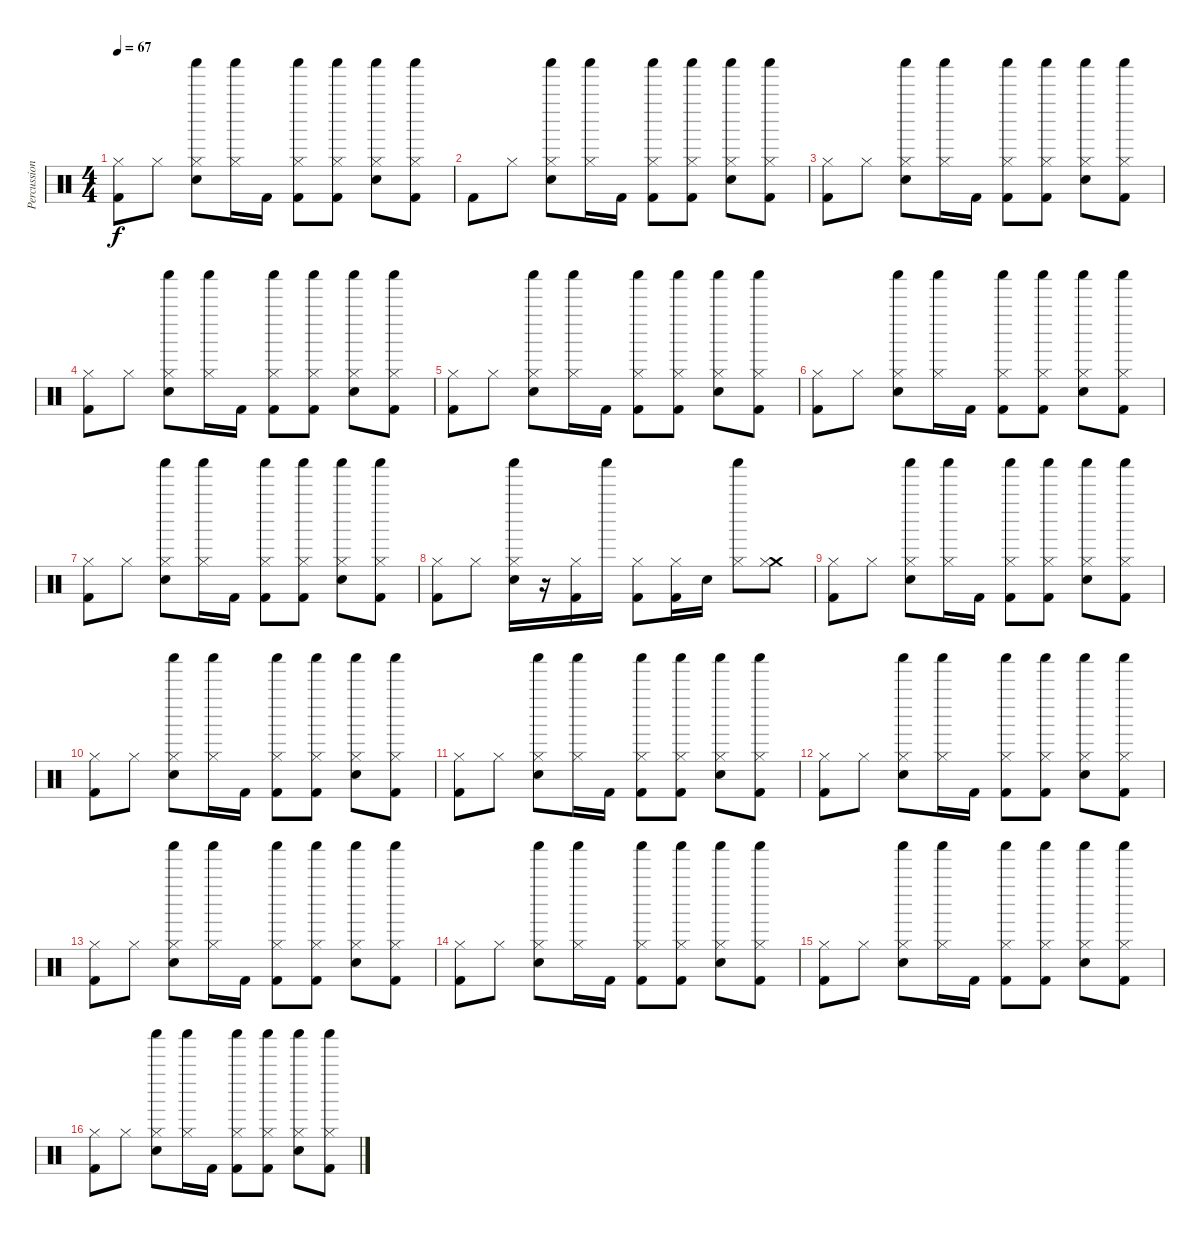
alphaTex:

\track ("Percussion" "Percussion") {instrument percussion}
\staff {score}
\articulation defaults
\ts (4 4)
\tempo 67
\clef neutral
\ks c
("Kick (hit) 2" "Hi-Hat (closed)").8{dy f} "Hi-Hat (closed)".8 ("Snare (hit) 2" "Shaker (hit)" "Hi-Hat (closed)").8 ("Shaker (hit)" "Hi-Hat (closed)").16 "Kick (hit) 2".16 ("Kick (hit) 2" "Shaker (hit)" "Hi-Hat (closed)").8 ("Kick (hit) 2" "Shaker (hit)" "Hi-Hat (closed)").8 ("Snare (hit) 2" "Shaker (hit)" "Hi-Hat (closed)").8 ("Kick (hit) 2" "Shaker (hit)" "Hi-Hat (closed)").8 |
"Kick (hit) 2".8 "Hi-Hat (closed)".8 ("Snare (hit) 2" "Shaker (hit)" "Hi-Hat (closed)").8 ("Shaker (hit)" "Hi-Hat (closed)").16 "Kick (hit) 2".16 ("Kick (hit) 2" "Shaker (hit)" "Hi-Hat (closed)").8 ("Kick (hit) 2" "Shaker (hit)" "Hi-Hat (closed)").8 ("Snare (hit) 2" "Shaker (hit)" "Hi-Hat (closed)").8 ("Kick (hit) 2" "Shaker (hit)" "Hi-Hat (closed)").8 |
("Kick (hit) 2" "Hi-Hat (closed)").8 "Hi-Hat (closed)".8 ("Snare (hit) 2" "Shaker (hit)" "Hi-Hat (closed)").8 ("Shaker (hit)" "Hi-Hat (closed)").16 "Kick (hit) 2".16 ("Kick (hit) 2" "Shaker (hit)" "Hi-Hat (closed)").8 ("Kick (hit) 2" "Shaker (hit)" "Hi-Hat (closed)").8 ("Snare (hit) 2" "Shaker (hit)" "Hi-Hat (closed)").8 ("Kick (hit) 2" "Shaker (hit)" "Hi-Hat (closed)").8 |
("Kick (hit) 2" "Hi-Hat (closed)").8 "Hi-Hat (closed)".8 ("Snare (hit) 2" "Shaker (hit)" "Hi-Hat (closed)").8 ("Shaker (hit)" "Hi-Hat (closed)").16 "Kick (hit) 2".16 ("Kick (hit) 2" "Shaker (hit)" "Hi-Hat (closed)").8 ("Kick (hit) 2" "Shaker (hit)" "Hi-Hat (closed)").8 ("Snare (hit) 2" "Shaker (hit)" "Hi-Hat (closed)").8 ("Kick (hit) 2" "Shaker (hit)" "Hi-Hat (closed)").8 |
("Kick (hit) 2" "Hi-Hat (closed)").8 "Hi-Hat (closed)".8 ("Snare (hit) 2" "Shaker (hit)" "Hi-Hat (closed)").8 ("Shaker (hit)" "Hi-Hat (closed)").16 "Kick (hit) 2".16 ("Kick (hit) 2" "Shaker (hit)" "Hi-Hat (closed)").8 ("Kick (hit) 2" "Shaker (hit)" "Hi-Hat (closed)").8 ("Snare (hit) 2" "Shaker (hit)" "Hi-Hat (closed)").8 ("Kick (hit) 2" "Shaker (hit)" "Hi-Hat (closed)").8 |
("Kick (hit) 2" "Hi-Hat (closed)").8 "Hi-Hat (closed)".8 ("Snare (hit) 2" "Shaker (hit)" "Hi-Hat (closed)").8 ("Shaker (hit)" "Hi-Hat (closed)").16 "Kick (hit) 2".16 ("Kick (hit) 2" "Shaker (hit)" "Hi-Hat (closed)").8 ("Kick (hit) 2" "Shaker (hit)" "Hi-Hat (closed)").8 ("Snare (hit) 2" "Shaker (hit)" "Hi-Hat (closed)").8 ("Kick (hit) 2" "Shaker (hit)" "Hi-Hat (closed)").8 |
("Kick (hit) 2" "Hi-Hat (closed)").8 "Hi-Hat (closed)".8 ("Snare (hit) 2" "Shaker (hit)" "Hi-Hat (closed)").8 ("Shaker (hit)" "Hi-Hat (closed)").16 "Kick (hit) 2".16 ("Kick (hit) 2" "Shaker (hit)" "Hi-Hat (closed)").8 ("Kick (hit) 2" "Shaker (hit)" "Hi-Hat (closed)").8 ("Snare (hit) 2" "Shaker (hit)" "Hi-Hat (closed)").8 ("Kick (hit) 2" "Shaker (hit)" "Hi-Hat (closed)").8 |
("Kick (hit) 2" "Hi-Hat (closed)").8 "Hi-Hat (closed)".8 ("Snare (hit) 2" "Shaker (hit)" "Hi-Hat (closed)").16 r.16 ("Kick (hit) 2" "Hi-Hat (closed)").16 "Shaker (hit)".16 ("Kick (hit) 2" "Hi-Hat (closed)").8 ("Kick (hit) 2" "Hi-Hat (closed)").16 "Snare (hit) 2".16 ("Shaker (hit)" "Hi-Hat (closed)").8 ("Crash medium (hit)" "Hi-Hat (closed)").8 |
("Kick (hit) 2" "Hi-Hat (closed)").8 "Hi-Hat (closed)".8 ("Snare (hit) 2" "Shaker (hit)" "Hi-Hat (closed)").8 ("Shaker (hit)" "Hi-Hat (closed)").16 "Kick (hit) 2".16 ("Kick (hit) 2" "Shaker (hit)" "Hi-Hat (closed)").8 ("Kick (hit) 2" "Shaker (hit)" "Hi-Hat (closed)").8 ("Snare (hit) 2" "Shaker (hit)" "Hi-Hat (closed)").8 ("Kick (hit) 2" "Shaker (hit)" "Hi-Hat (closed)").8 |
("Kick (hit) 2" "Hi-Hat (closed)").8 "Hi-Hat (closed)".8 ("Snare (hit) 2" "Shaker (hit)" "Hi-Hat (closed)").8 ("Shaker (hit)" "Hi-Hat (closed)").16 "Kick (hit) 2".16 ("Kick (hit) 2" "Shaker (hit)" "Hi-Hat (closed)").8 ("Kick (hit) 2" "Shaker (hit)" "Hi-Hat (closed)").8 ("Snare (hit) 2" "Shaker (hit)" "Hi-Hat (closed)").8 ("Kick (hit) 2" "Shaker (hit)" "Hi-Hat (closed)").8 |
("Kick (hit) 2" "Hi-Hat (closed)").8 "Hi-Hat (closed)".8 ("Snare (hit) 2" "Shaker (hit)" "Hi-Hat (closed)").8 ("Shaker (hit)" "Hi-Hat (closed)").16 "Kick (hit) 2".16 ("Kick (hit) 2" "Shaker (hit)" "Hi-Hat (closed)").8 ("Kick (hit) 2" "Shaker (hit)" "Hi-Hat (closed)").8 ("Snare (hit) 2" "Shaker (hit)" "Hi-Hat (closed)").8 ("Kick (hit) 2" "Shaker (hit)" "Hi-Hat (closed)").8 |
("Kick (hit) 2" "Hi-Hat (closed)").8 "Hi-Hat (closed)".8 ("Snare (hit) 2" "Shaker (hit)" "Hi-Hat (closed)").8 ("Shaker (hit)" "Hi-Hat (closed)").16 "Kick (hit) 2".16 ("Kick (hit) 2" "Shaker (hit)" "Hi-Hat (closed)").8 ("Kick (hit) 2" "Shaker (hit)" "Hi-Hat (closed)").8 ("Snare (hit) 2" "Shaker (hit)" "Hi-Hat (closed)").8 ("Kick (hit) 2" "Shaker (hit)" "Hi-Hat (closed)").8 |
("Kick (hit) 2" "Hi-Hat (closed)").8 "Hi-Hat (closed)".8 ("Snare (hit) 2" "Shaker (hit)" "Hi-Hat (closed)").8 ("Shaker (hit)" "Hi-Hat (closed)").16 "Kick (hit) 2".16 ("Kick (hit) 2" "Shaker (hit)" "Hi-Hat (closed)").8 ("Kick (hit) 2" "Shaker (hit)" "Hi-Hat (closed)").8 ("Snare (hit) 2" "Shaker (hit)" "Hi-Hat (closed)").8 ("Kick (hit) 2" "Shaker (hit)" "Hi-Hat (closed)").8 |
("Kick (hit) 2" "Hi-Hat (closed)").8 "Hi-Hat (closed)".8 ("Snare (hit) 2" "Shaker (hit)" "Hi-Hat (closed)").8 ("Shaker (hit)" "Hi-Hat (closed)").16 "Kick (hit) 2".16 ("Kick (hit) 2" "Shaker (hit)" "Hi-Hat (closed)").8 ("Kick (hit) 2" "Shaker (hit)" "Hi-Hat (closed)").8 ("Snare (hit) 2" "Shaker (hit)" "Hi-Hat (closed)").8 ("Kick (hit) 2" "Shaker (hit)" "Hi-Hat (closed)").8 |
("Kick (hit) 2" "Hi-Hat (closed)").8 "Hi-Hat (closed)".8 ("Snare (hit) 2" "Shaker (hit)" "Hi-Hat (closed)").8 ("Shaker (hit)" "Hi-Hat (closed)").16 "Kick (hit) 2".16 ("Kick (hit) 2" "Shaker (hit)" "Hi-Hat (closed)").8 ("Kick (hit) 2" "Shaker (hit)" "Hi-Hat (closed)").8 ("Snare (hit) 2" "Shaker (hit)" "Hi-Hat (closed)").8 ("Kick (hit) 2" "Shaker (hit)" "Hi-Hat (closed)").8 |
("Kick (hit) 2" "Hi-Hat (closed)").8 "Hi-Hat (closed)".8 ("Snare (hit) 2" "Shaker (hit)" "Hi-Hat (closed)").8 ("Shaker (hit)" "Hi-Hat (closed)").16 "Kick (hit) 2".16 ("Kick (hit) 2" "Shaker (hit)" "Hi-Hat (closed)").8 ("Kick (hit) 2" "Shaker (hit)" "Hi-Hat (closed)").8 ("Snare (hit) 2" "Shaker (hit)" "Hi-Hat (closed)").8 ("Kick (hit) 2" "Shaker (hit)" "Hi-Hat (closed)").8
